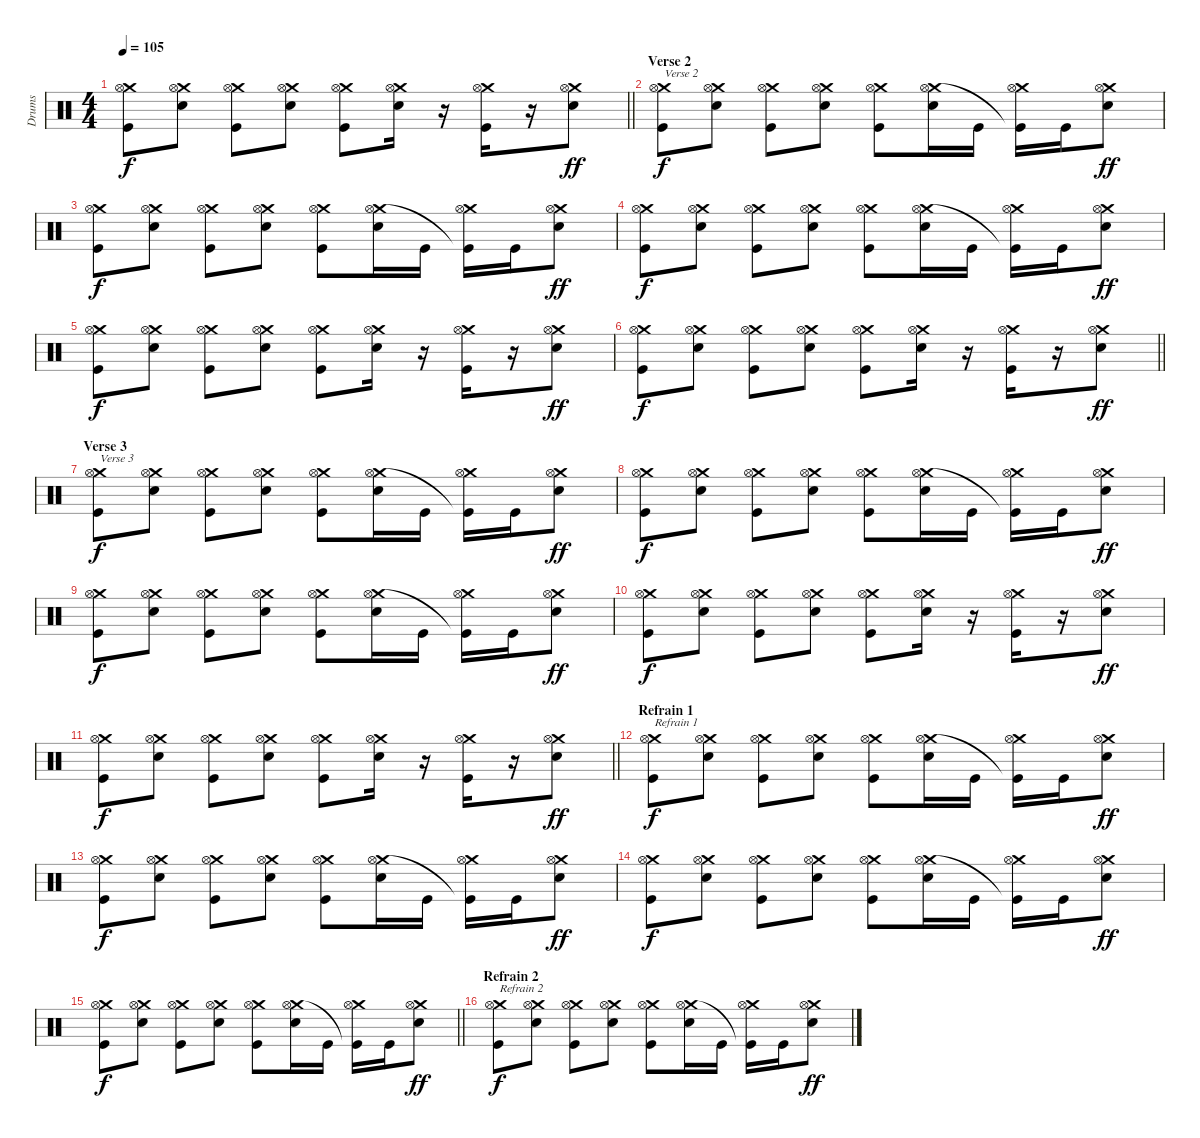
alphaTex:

\track ("Drums" "Drums") {instrument percussion}
\staff {score}
\articulation defaults
\ts (4 4)
\tempo 105
\clef neutral
\barLineRight lightlight
\ks c
("Crash medium (hit)" "Hi-Hat (open)" "Kick (hit)").8{dy f} ("Crash medium (hit)" "Electric Snare (hit)" "Hi-Hat (open)").8 ("Crash medium (hit)" "Hi-Hat (open)" "Kick (hit)").8 ("Crash medium (hit)" "Electric Snare (hit)" "Hi-Hat (open)").8 ("Crash medium (hit)" "Hi-Hat (open)" "Kick (hit)").8 ("Crash medium (hit)" "Electric Snare (hit)" "Hi-Hat (open)").16 r.16 ("Crash medium (hit)" "Hi-Hat (open)" "Kick (hit)").16 r.16 ("Crash medium (hit)" "Electric Snare (hit)" "Hi-Hat (open)").8{dy ff} |
\section ("" "Verse 2")
("Crash medium (hit)" "Hi-Hat (open)" "Kick (hit)").8{txt "Verse 2" dy f} ("Crash medium (hit)" "Electric Snare (hit)" "Hi-Hat (open)").8 ("Crash medium (hit)" "Hi-Hat (open)" "Kick (hit)").8 ("Crash medium (hit)" "Electric Snare (hit)" "Hi-Hat (open)").8 ("Crash medium (hit)" "Hi-Hat (open)" "Kick (hit)").8 ("Crash medium (hit)" "Electric Snare (hit)" "Hi-Hat (open)").16 "Kick (hit)".16 ("Crash medium (hit)" "Hi-Hat (open)" "Kick (hit)"{t}).16 "Kick (hit)".16 ("Crash medium (hit)" "Electric Snare (hit)" "Hi-Hat (open)").8{dy ff} |
("Crash medium (hit)" "Hi-Hat (open)" "Kick (hit)").8{dy f} ("Crash medium (hit)" "Electric Snare (hit)" "Hi-Hat (open)").8 ("Crash medium (hit)" "Hi-Hat (open)" "Kick (hit)").8 ("Crash medium (hit)" "Electric Snare (hit)" "Hi-Hat (open)").8 ("Crash medium (hit)" "Hi-Hat (open)" "Kick (hit)").8 ("Crash medium (hit)" "Electric Snare (hit)" "Hi-Hat (open)").16 "Kick (hit)".16 ("Crash medium (hit)" "Hi-Hat (open)" "Kick (hit)"{t}).16 "Kick (hit)".16 ("Crash medium (hit)" "Electric Snare (hit)" "Hi-Hat (open)").8{dy ff} |
("Crash medium (hit)" "Hi-Hat (open)" "Kick (hit)").8{dy f} ("Crash medium (hit)" "Electric Snare (hit)" "Hi-Hat (open)").8 ("Crash medium (hit)" "Hi-Hat (open)" "Kick (hit)").8 ("Crash medium (hit)" "Electric Snare (hit)" "Hi-Hat (open)").8 ("Crash medium (hit)" "Hi-Hat (open)" "Kick (hit)").8 ("Crash medium (hit)" "Electric Snare (hit)" "Hi-Hat (open)").16 "Kick (hit)".16 ("Crash medium (hit)" "Hi-Hat (open)" "Kick (hit)"{t}).16 "Kick (hit)".16 ("Crash medium (hit)" "Electric Snare (hit)" "Hi-Hat (open)").8{dy ff} |
("Crash medium (hit)" "Hi-Hat (open)" "Kick (hit)").8{dy f} ("Crash medium (hit)" "Electric Snare (hit)" "Hi-Hat (open)").8 ("Crash medium (hit)" "Hi-Hat (open)" "Kick (hit)").8 ("Crash medium (hit)" "Electric Snare (hit)" "Hi-Hat (open)").8 ("Crash medium (hit)" "Hi-Hat (open)" "Kick (hit)").8 ("Crash medium (hit)" "Electric Snare (hit)" "Hi-Hat (open)").16 r.16 ("Crash medium (hit)" "Hi-Hat (open)" "Kick (hit)").16 r.16 ("Crash medium (hit)" "Electric Snare (hit)" "Hi-Hat (open)").8{dy ff} |
\barLineRight lightlight
("Crash medium (hit)" "Hi-Hat (open)" "Kick (hit)").8{dy f} ("Crash medium (hit)" "Electric Snare (hit)" "Hi-Hat (open)").8 ("Crash medium (hit)" "Hi-Hat (open)" "Kick (hit)").8 ("Crash medium (hit)" "Electric Snare (hit)" "Hi-Hat (open)").8 ("Crash medium (hit)" "Hi-Hat (open)" "Kick (hit)").8 ("Crash medium (hit)" "Electric Snare (hit)" "Hi-Hat (open)").16 r.16 ("Crash medium (hit)" "Hi-Hat (open)" "Kick (hit)").16 r.16 ("Crash medium (hit)" "Electric Snare (hit)" "Hi-Hat (open)").8{dy ff} |
\section ("" "Verse 3")
("Crash medium (hit)" "Hi-Hat (open)" "Kick (hit)").8{txt "Verse 3" dy f} ("Crash medium (hit)" "Electric Snare (hit)" "Hi-Hat (open)").8 ("Crash medium (hit)" "Hi-Hat (open)" "Kick (hit)").8 ("Crash medium (hit)" "Electric Snare (hit)" "Hi-Hat (open)").8 ("Crash medium (hit)" "Hi-Hat (open)" "Kick (hit)").8 ("Crash medium (hit)" "Electric Snare (hit)" "Hi-Hat (open)").16 "Kick (hit)".16 ("Crash medium (hit)" "Hi-Hat (open)" "Kick (hit)"{t}).16 "Kick (hit)".16 ("Crash medium (hit)" "Electric Snare (hit)" "Hi-Hat (open)").8{dy ff} |
("Crash medium (hit)" "Hi-Hat (open)" "Kick (hit)").8{dy f} ("Crash medium (hit)" "Electric Snare (hit)" "Hi-Hat (open)").8 ("Crash medium (hit)" "Hi-Hat (open)" "Kick (hit)").8 ("Crash medium (hit)" "Electric Snare (hit)" "Hi-Hat (open)").8 ("Crash medium (hit)" "Hi-Hat (open)" "Kick (hit)").8 ("Crash medium (hit)" "Electric Snare (hit)" "Hi-Hat (open)").16 "Kick (hit)".16 ("Crash medium (hit)" "Hi-Hat (open)" "Kick (hit)"{t}).16 "Kick (hit)".16 ("Crash medium (hit)" "Electric Snare (hit)" "Hi-Hat (open)").8{dy ff} |
("Crash medium (hit)" "Hi-Hat (open)" "Kick (hit)").8{dy f} ("Crash medium (hit)" "Electric Snare (hit)" "Hi-Hat (open)").8 ("Crash medium (hit)" "Hi-Hat (open)" "Kick (hit)").8 ("Crash medium (hit)" "Electric Snare (hit)" "Hi-Hat (open)").8 ("Crash medium (hit)" "Hi-Hat (open)" "Kick (hit)").8 ("Crash medium (hit)" "Electric Snare (hit)" "Hi-Hat (open)").16 "Kick (hit)".16 ("Crash medium (hit)" "Hi-Hat (open)" "Kick (hit)"{t}).16 "Kick (hit)".16 ("Crash medium (hit)" "Electric Snare (hit)" "Hi-Hat (open)").8{dy ff} |
("Crash medium (hit)" "Hi-Hat (open)" "Kick (hit)").8{dy f} ("Crash medium (hit)" "Electric Snare (hit)" "Hi-Hat (open)").8 ("Crash medium (hit)" "Hi-Hat (open)" "Kick (hit)").8 ("Crash medium (hit)" "Electric Snare (hit)" "Hi-Hat (open)").8 ("Crash medium (hit)" "Hi-Hat (open)" "Kick (hit)").8 ("Crash medium (hit)" "Electric Snare (hit)" "Hi-Hat (open)").16 r.16 ("Crash medium (hit)" "Hi-Hat (open)" "Kick (hit)").16 r.16 ("Crash medium (hit)" "Electric Snare (hit)" "Hi-Hat (open)").8{dy ff} |
\barLineRight lightlight
("Crash medium (hit)" "Hi-Hat (open)" "Kick (hit)").8{dy f} ("Crash medium (hit)" "Electric Snare (hit)" "Hi-Hat (open)").8 ("Crash medium (hit)" "Hi-Hat (open)" "Kick (hit)").8 ("Crash medium (hit)" "Electric Snare (hit)" "Hi-Hat (open)").8 ("Crash medium (hit)" "Hi-Hat (open)" "Kick (hit)").8 ("Crash medium (hit)" "Electric Snare (hit)" "Hi-Hat (open)").16 r.16 ("Crash medium (hit)" "Hi-Hat (open)" "Kick (hit)").16 r.16 ("Crash medium (hit)" "Electric Snare (hit)" "Hi-Hat (open)").8{dy ff} |
\section ("" "Refrain 1")
("Crash medium (hit)" "Hi-Hat (open)" "Kick (hit)").8{txt "Refrain 1" dy f} ("Crash medium (hit)" "Electric Snare (hit)" "Hi-Hat (open)").8 ("Crash medium (hit)" "Hi-Hat (open)" "Kick (hit)").8 ("Crash medium (hit)" "Electric Snare (hit)" "Hi-Hat (open)").8 ("Crash medium (hit)" "Hi-Hat (open)" "Kick (hit)").8 ("Crash medium (hit)" "Electric Snare (hit)" "Hi-Hat (open)").16 "Kick (hit)".16 ("Crash medium (hit)" "Hi-Hat (open)" "Kick (hit)"{t}).16 "Kick (hit)".16 ("Crash medium (hit)" "Electric Snare (hit)" "Hi-Hat (open)").8{dy ff} |
("Crash medium (hit)" "Hi-Hat (open)" "Kick (hit)").8{dy f} ("Crash medium (hit)" "Electric Snare (hit)" "Hi-Hat (open)").8 ("Crash medium (hit)" "Hi-Hat (open)" "Kick (hit)").8 ("Crash medium (hit)" "Electric Snare (hit)" "Hi-Hat (open)").8 ("Crash medium (hit)" "Hi-Hat (open)" "Kick (hit)").8 ("Crash medium (hit)" "Electric Snare (hit)" "Hi-Hat (open)").16 "Kick (hit)".16 ("Crash medium (hit)" "Hi-Hat (open)" "Kick (hit)"{t}).16 "Kick (hit)".16 ("Crash medium (hit)" "Electric Snare (hit)" "Hi-Hat (open)").8{dy ff} |
("Crash medium (hit)" "Hi-Hat (open)" "Kick (hit)").8{dy f} ("Crash medium (hit)" "Electric Snare (hit)" "Hi-Hat (open)").8 ("Crash medium (hit)" "Hi-Hat (open)" "Kick (hit)").8 ("Crash medium (hit)" "Electric Snare (hit)" "Hi-Hat (open)").8 ("Crash medium (hit)" "Hi-Hat (open)" "Kick (hit)").8 ("Crash medium (hit)" "Electric Snare (hit)" "Hi-Hat (open)").16 "Kick (hit)".16 ("Crash medium (hit)" "Hi-Hat (open)" "Kick (hit)"{t}).16 "Kick (hit)".16 ("Crash medium (hit)" "Electric Snare (hit)" "Hi-Hat (open)").8{dy ff} |
\barLineRight lightlight
("Crash medium (hit)" "Hi-Hat (open)" "Kick (hit)").8{dy f} ("Crash medium (hit)" "Electric Snare (hit)" "Hi-Hat (open)").8 ("Crash medium (hit)" "Hi-Hat (open)" "Kick (hit)").8 ("Crash medium (hit)" "Electric Snare (hit)" "Hi-Hat (open)").8 ("Crash medium (hit)" "Hi-Hat (open)" "Kick (hit)").8 ("Crash medium (hit)" "Electric Snare (hit)" "Hi-Hat (open)").16 "Kick (hit)".16 ("Crash medium (hit)" "Hi-Hat (open)" "Kick (hit)"{t}).16 "Kick (hit)".16 ("Crash medium (hit)" "Electric Snare (hit)" "Hi-Hat (open)").8{dy ff} |
\section ("" "Refrain 2")
("Crash medium (hit)" "Hi-Hat (open)" "Kick (hit)").8{txt "Refrain 2" dy f} ("Crash medium (hit)" "Electric Snare (hit)" "Hi-Hat (open)").8 ("Crash medium (hit)" "Hi-Hat (open)" "Kick (hit)").8 ("Crash medium (hit)" "Electric Snare (hit)" "Hi-Hat (open)").8 ("Crash medium (hit)" "Hi-Hat (open)" "Kick (hit)").8 ("Crash medium (hit)" "Electric Snare (hit)" "Hi-Hat (open)").16 "Kick (hit)".16 ("Crash medium (hit)" "Hi-Hat (open)" "Kick (hit)"{t}).16 "Kick (hit)".16 ("Crash medium (hit)" "Electric Snare (hit)" "Hi-Hat (open)").8{dy ff}
